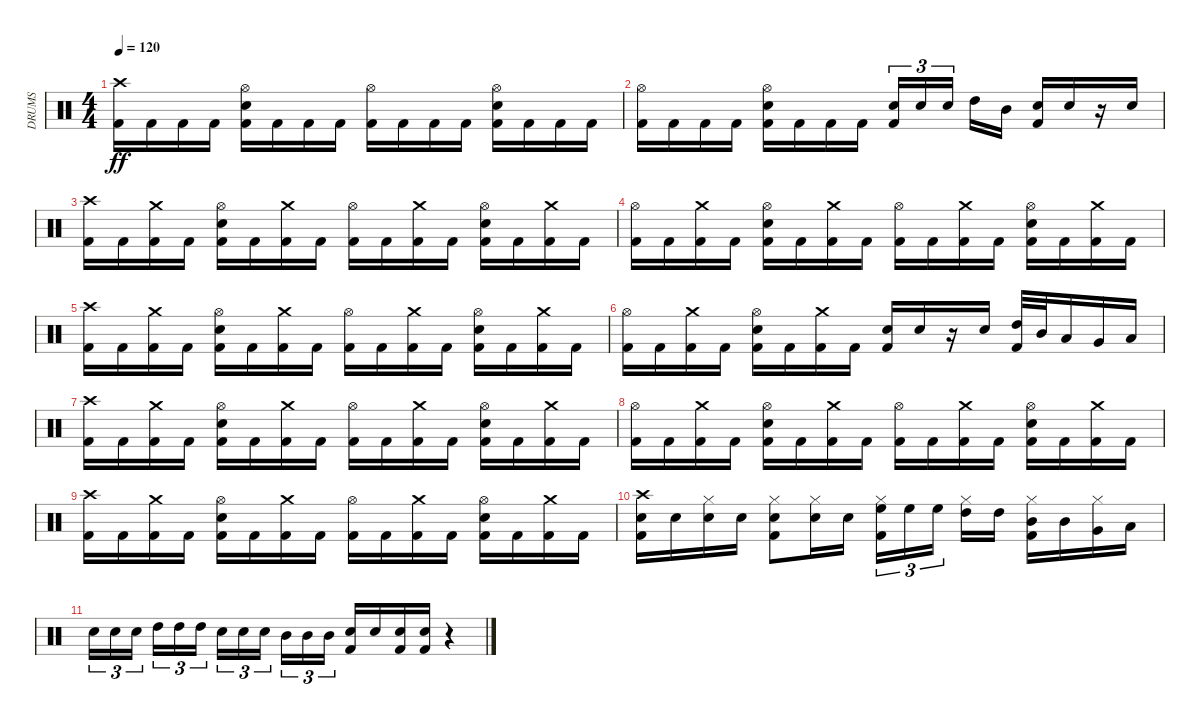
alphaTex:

\track ("DRUMS" "DRUMS") {instrument percussion}
\staff {score}
\articulation defaults
\ts (4 4)
\tempo 120
\clef neutral
\ks c
("Kick (hit) 2" "Crash high (hit)").16{dy ff} "Kick (hit) 2".16 "Kick (hit) 2".16 "Kick (hit) 2".16 ("Kick (hit) 2" "Electric Snare (hit)" "Hi-Hat (open)").16 "Kick (hit) 2".16 "Kick (hit) 2".16 "Kick (hit) 2".16 ("Kick (hit) 2" "Hi-Hat (open)").16 "Kick (hit) 2".16 "Kick (hit) 2".16 "Kick (hit) 2".16 ("Kick (hit) 2" "Electric Snare (hit)" "Hi-Hat (open)").16 "Kick (hit) 2".16 "Kick (hit) 2".16 "Kick (hit) 2".16 |
("Kick (hit) 2" "Hi-Hat (open)").16 "Kick (hit) 2".16 "Kick (hit) 2".16 "Kick (hit) 2".16 ("Kick (hit) 2" "Electric Snare (hit)" "Hi-Hat (open)").16 "Kick (hit) 2".16 "Kick (hit) 2".16 "Kick (hit) 2".16 ("Kick (hit) 2" "Electric Snare (hit)").16{tu (3 2)} "Electric Snare (hit)".16{tu (3 2)} "Electric Snare (hit)".16{tu (3 2) beam splitsecondary} "High Tom (hit)".16 "Mid Tom (hit)".16 ("Kick (hit) 2" "Electric Snare (hit)").16 "Electric Snare (hit)".16 r.16 "Electric Snare (hit)".16 |
("Kick (hit) 2" "Crash high (hit)").16 "Kick (hit) 2".16 ("Crash medium (hit)" "Kick (hit) 2").16 "Kick (hit) 2".16 ("Kick (hit) 2" "Electric Snare (hit)" "Hi-Hat (open)").16 "Kick (hit) 2".16 ("Crash medium (hit)" "Kick (hit) 2").16 "Kick (hit) 2".16 ("Kick (hit) 2" "Hi-Hat (open)").16 "Kick (hit) 2".16 ("Crash medium (hit)" "Kick (hit) 2").16 "Kick (hit) 2".16 ("Kick (hit) 2" "Electric Snare (hit)" "Hi-Hat (open)").16 "Kick (hit) 2".16 ("Crash medium (hit)" "Kick (hit) 2").16 "Kick (hit) 2".16 |
("Kick (hit) 2" "Hi-Hat (open)").16 "Kick (hit) 2".16 ("Crash medium (hit)" "Kick (hit) 2").16 "Kick (hit) 2".16 ("Kick (hit) 2" "Electric Snare (hit)" "Hi-Hat (open)").16 "Kick (hit) 2".16 ("Crash medium (hit)" "Kick (hit) 2").16 "Kick (hit) 2".16 ("Kick (hit) 2" "Hi-Hat (open)").16 "Kick (hit) 2".16 ("Crash medium (hit)" "Kick (hit) 2").16 "Kick (hit) 2".16 ("Kick (hit) 2" "Electric Snare (hit)" "Hi-Hat (open)").16 "Kick (hit) 2".16 ("Crash medium (hit)" "Kick (hit) 2").16 "Kick (hit) 2".16 |
("Kick (hit) 2" "Crash high (hit)").16 "Kick (hit) 2".16 ("Crash medium (hit)" "Kick (hit) 2").16 "Kick (hit) 2".16 ("Kick (hit) 2" "Electric Snare (hit)" "Hi-Hat (open)").16 "Kick (hit) 2".16 ("Crash medium (hit)" "Kick (hit) 2").16 "Kick (hit) 2".16 ("Kick (hit) 2" "Hi-Hat (open)").16 "Kick (hit) 2".16 ("Crash medium (hit)" "Kick (hit) 2").16 "Kick (hit) 2".16 ("Kick (hit) 2" "Electric Snare (hit)" "Hi-Hat (open)").16 "Kick (hit) 2".16 ("Crash medium (hit)" "Kick (hit) 2").16 "Kick (hit) 2".16 |
("Kick (hit) 2" "Hi-Hat (open)").16 "Kick (hit) 2".16 ("Crash medium (hit)" "Kick (hit) 2").16 "Kick (hit) 2".16 ("Kick (hit) 2" "Electric Snare (hit)" "Hi-Hat (open)").16 "Kick (hit) 2".16 ("Crash medium (hit)" "Kick (hit) 2").16 "Kick (hit) 2".16 ("Kick (hit) 2" "Electric Snare (hit)").16 "Electric Snare (hit)".16 r.16 "Electric Snare (hit)".16 ("Kick (hit) 2" "High Tom (hit)").32 "Mid Tom (hit)".32 "Low Tom (hit)".16 "Very Low Tom (hit)".16 "Low Floor Tom (hit)".16 |
("Kick (hit) 2" "Crash high (hit)").16 "Kick (hit) 2".16 ("Crash medium (hit)" "Kick (hit) 2").16 "Kick (hit) 2".16 ("Kick (hit) 2" "Electric Snare (hit)" "Hi-Hat (open)").16 "Kick (hit) 2".16 ("Crash medium (hit)" "Kick (hit) 2").16 "Kick (hit) 2".16 ("Kick (hit) 2" "Hi-Hat (open)").16 "Kick (hit) 2".16 ("Crash medium (hit)" "Kick (hit) 2").16 "Kick (hit) 2".16 ("Kick (hit) 2" "Electric Snare (hit)" "Hi-Hat (open)").16 "Kick (hit) 2".16 ("Crash medium (hit)" "Kick (hit) 2").16 "Kick (hit) 2".16 |
("Kick (hit) 2" "Hi-Hat (open)").16 "Kick (hit) 2".16 ("Crash medium (hit)" "Kick (hit) 2").16 "Kick (hit) 2".16 ("Kick (hit) 2" "Electric Snare (hit)" "Hi-Hat (open)").16 "Kick (hit) 2".16 ("Crash medium (hit)" "Kick (hit) 2").16 "Kick (hit) 2".16 ("Kick (hit) 2" "Hi-Hat (open)").16 "Kick (hit) 2".16 ("Crash medium (hit)" "Kick (hit) 2").16 "Kick (hit) 2".16 ("Kick (hit) 2" "Electric Snare (hit)" "Hi-Hat (open)").16 "Kick (hit) 2".16 ("Crash medium (hit)" "Kick (hit) 2").16 "Kick (hit) 2".16 |
("Kick (hit) 2" "Crash high (hit)").16 "Kick (hit) 2".16 ("Crash medium (hit)" "Kick (hit) 2").16 "Kick (hit) 2".16 ("Kick (hit) 2" "Electric Snare (hit)" "Hi-Hat (open)").16 "Kick (hit) 2".16 ("Crash medium (hit)" "Kick (hit) 2").16 "Kick (hit) 2".16 ("Kick (hit) 2" "Hi-Hat (open)").16 "Kick (hit) 2".16 ("Crash medium (hit)" "Kick (hit) 2").16 "Kick (hit) 2".16 ("Kick (hit) 2" "Electric Snare (hit)" "Hi-Hat (open)").16 "Kick (hit) 2".16 ("Crash medium (hit)" "Kick (hit) 2").16 "Kick (hit) 2".16 |
("Kick (hit) 2" "Electric Snare (hit)" "Crash high (hit)").16 "Electric Snare (hit)".16 ("Electric Snare (hit)" "Hi-Hat (closed)").16 "Electric Snare (hit)".16 ("Kick (hit) 2" "Electric Snare (hit)" "Hi-Hat (closed)").8 ("Electric Snare (hit)" "Hi-Hat (closed)").16 "Electric Snare (hit)".16 ("Kick (hit) 2" "Hi-Hat (closed)" "High Floor Tom (hit)").16{tu (3 2)} "High Floor Tom (hit)".16{tu (3 2)} "High Floor Tom (hit)".16{tu (3 2) beam splitsecondary} ("Hi-Hat (closed)" "High Tom (hit)").16 "High Tom (hit)".16 ("Kick (hit) 2" "Hi-Hat (closed)" "Mid Tom (hit)").16 "Mid Tom (hit)".16 ("Hi-Hat (closed)" "Very Low Tom (hit)").16 "Low Floor Tom (hit)".16 |
"Electric Snare (hit)".16{tu (3 2)} "Electric Snare (hit)".16{tu (3 2)} "Electric Snare (hit)".16{tu (3 2) beam splitsecondary} "High Tom (hit)".16{tu (3 2)} "High Tom (hit)".16{tu (3 2)} "High Tom (hit)".16{tu (3 2)} "Electric Snare (hit)".16{tu (3 2)} "Electric Snare (hit)".16{tu (3 2)} "Electric Snare (hit)".16{tu (3 2) beam splitsecondary} "Mid Tom (hit)".16{tu (3 2)} "Mid Tom (hit)".16{tu (3 2)} "Mid Tom (hit)".16{tu (3 2)} ("Kick (hit) 2" "Electric Snare (hit)").16 "Electric Snare (hit)".16 ("Kick (hit) 2" "Electric Snare (hit)").16 ("Kick (hit) 2" "Electric Snare (hit)").16 r.4
